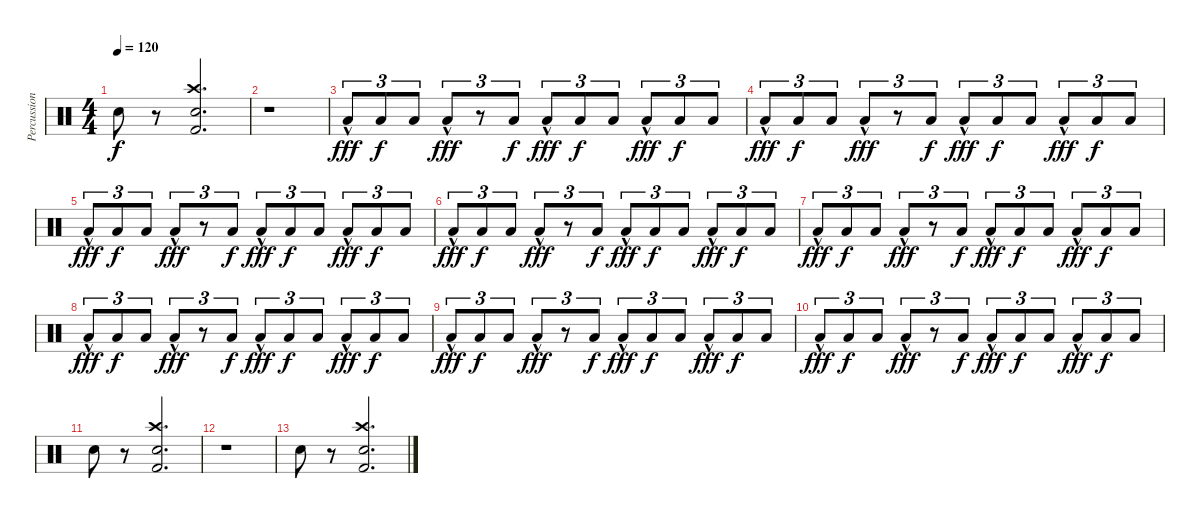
\track ("Percussion" "Percussion") {instrument percussion}
\staff {score}
\articulation defaults
\ts (4 4)
\tempo 120
\clef neutral
\ks c "Snare (hit) 2".8{dy f}
r.8 ("Crash high (hit)" "Snare (hit) 2" "Kick (hit) 2").2{d} |
r.1 |
"Low Floor Tom (hit)"{hac}.8{tu (3 2) dy fff} "Low Floor Tom (hit)".8{tu (3 2) dy f} "Low Floor Tom (hit)".8{tu (3 2)} "Low Floor Tom (hit)"{hac}.8{tu (3 2) dy fff} r.8{tu (3 2)} "Low Floor Tom (hit)".8{tu (3 2) dy f} "Low Floor Tom (hit)"{hac}.8{tu (3 2) dy fff} "Low Floor Tom (hit)".8{tu (3 2) dy f} "Low Floor Tom (hit)".8{tu (3 2)} "Low Floor Tom (hit)"{hac}.8{tu (3 2) dy fff} "Low Floor Tom (hit)".8{tu (3 2) dy f} "Low Floor Tom (hit)".8{tu (3 2)} |
"Low Floor Tom (hit)"{hac}.8{tu (3 2) dy fff} "Low Floor Tom (hit)".8{tu (3 2) dy f} "Low Floor Tom (hit)".8{tu (3 2)} "Low Floor Tom (hit)"{hac}.8{tu (3 2) dy fff} r.8{tu (3 2)} "Low Floor Tom (hit)".8{tu (3 2) dy f} "Low Floor Tom (hit)"{hac}.8{tu (3 2) dy fff} "Low Floor Tom (hit)".8{tu (3 2) dy f} "Low Floor Tom (hit)".8{tu (3 2)} "Low Floor Tom (hit)"{hac}.8{tu (3 2) dy fff} "Low Floor Tom (hit)".8{tu (3 2) dy f} "Low Floor Tom (hit)".8{tu (3 2)} |
"Low Floor Tom (hit)"{hac}.8{tu (3 2) dy fff} "Low Floor Tom (hit)".8{tu (3 2) dy f} "Low Floor Tom (hit)".8{tu (3 2)} "Low Floor Tom (hit)"{hac}.8{tu (3 2) dy fff} r.8{tu (3 2)} "Low Floor Tom (hit)".8{tu (3 2) dy f} "Low Floor Tom (hit)"{hac}.8{tu (3 2) dy fff} "Low Floor Tom (hit)".8{tu (3 2) dy f} "Low Floor Tom (hit)".8{tu (3 2)} "Low Floor Tom (hit)"{hac}.8{tu (3 2) dy fff} "Low Floor Tom (hit)".8{tu (3 2) dy f} "Low Floor Tom (hit)".8{tu (3 2)} |
"Low Floor Tom (hit)"{hac}.8{tu (3 2) dy fff} "Low Floor Tom (hit)".8{tu (3 2) dy f} "Low Floor Tom (hit)".8{tu (3 2)} "Low Floor Tom (hit)"{hac}.8{tu (3 2) dy fff} r.8{tu (3 2)} "Low Floor Tom (hit)".8{tu (3 2) dy f} "Low Floor Tom (hit)"{hac}.8{tu (3 2) dy fff} "Low Floor Tom (hit)".8{tu (3 2) dy f} "Low Floor Tom (hit)".8{tu (3 2)} "Low Floor Tom (hit)"{hac}.8{tu (3 2) dy fff} "Low Floor Tom (hit)".8{tu (3 2) dy f} "Low Floor Tom (hit)".8{tu (3 2)} |
"Low Floor Tom (hit)"{hac}.8{tu (3 2) dy fff} "Low Floor Tom (hit)".8{tu (3 2) dy f} "Low Floor Tom (hit)".8{tu (3 2)} "Low Floor Tom (hit)"{hac}.8{tu (3 2) dy fff} r.8{tu (3 2)} "Low Floor Tom (hit)".8{tu (3 2) dy f} "Low Floor Tom (hit)"{hac}.8{tu (3 2) dy fff} "Low Floor Tom (hit)".8{tu (3 2) dy f} "Low Floor Tom (hit)".8{tu (3 2)} "Low Floor Tom (hit)"{hac}.8{tu (3 2) dy fff} "Low Floor Tom (hit)".8{tu (3 2) dy f} "Low Floor Tom (hit)".8{tu (3 2)} |
"Low Floor Tom (hit)"{hac}.8{tu (3 2) dy fff} "Low Floor Tom (hit)".8{tu (3 2) dy f} "Low Floor Tom (hit)".8{tu (3 2)} "Low Floor Tom (hit)"{hac}.8{tu (3 2) dy fff} r.8{tu (3 2)} "Low Floor Tom (hit)".8{tu (3 2) dy f} "Low Floor Tom (hit)"{hac}.8{tu (3 2) dy fff} "Low Floor Tom (hit)".8{tu (3 2) dy f} "Low Floor Tom (hit)".8{tu (3 2)} "Low Floor Tom (hit)"{hac}.8{tu (3 2) dy fff} "Low Floor Tom (hit)".8{tu (3 2) dy f} "Low Floor Tom (hit)".8{tu (3 2)} |
"Low Floor Tom (hit)"{hac}.8{tu (3 2) dy fff} "Low Floor Tom (hit)".8{tu (3 2) dy f} "Low Floor Tom (hit)".8{tu (3 2)} "Low Floor Tom (hit)"{hac}.8{tu (3 2) dy fff} r.8{tu (3 2)} "Low Floor Tom (hit)".8{tu (3 2) dy f} "Low Floor Tom (hit)"{hac}.8{tu (3 2) dy fff} "Low Floor Tom (hit)".8{tu (3 2) dy f} "Low Floor Tom (hit)".8{tu (3 2)} "Low Floor Tom (hit)"{hac}.8{tu (3 2) dy fff} "Low Floor Tom (hit)".8{tu (3 2) dy f} "Low Floor Tom (hit)".8{tu (3 2)} |
"Low Floor Tom (hit)"{hac}.8{tu (3 2) dy fff} "Low Floor Tom (hit)".8{tu (3 2) dy f} "Low Floor Tom (hit)".8{tu (3 2)} "Low Floor Tom (hit)"{hac}.8{tu (3 2) dy fff} r.8{tu (3 2)} "Low Floor Tom (hit)".8{tu (3 2) dy f} "Low Floor Tom (hit)"{hac}.8{tu (3 2) dy fff} "Low Floor Tom (hit)".8{tu (3 2) dy f} "Low Floor Tom (hit)".8{tu (3 2)} "Low Floor Tom (hit)"{hac}.8{tu (3 2) dy fff} "Low Floor Tom (hit)".8{tu (3 2) dy f} "Low Floor Tom (hit)".8{tu (3 2)} |
"Snare (hit) 2".8 r.8 ("Crash high (hit)" "Snare (hit) 2" "Kick (hit) 2").2{d} |
r.1 |
"Snare (hit) 2".8 r.8 ("Crash high (hit)" "Snare (hit) 2" "Kick (hit) 2").2{d}
